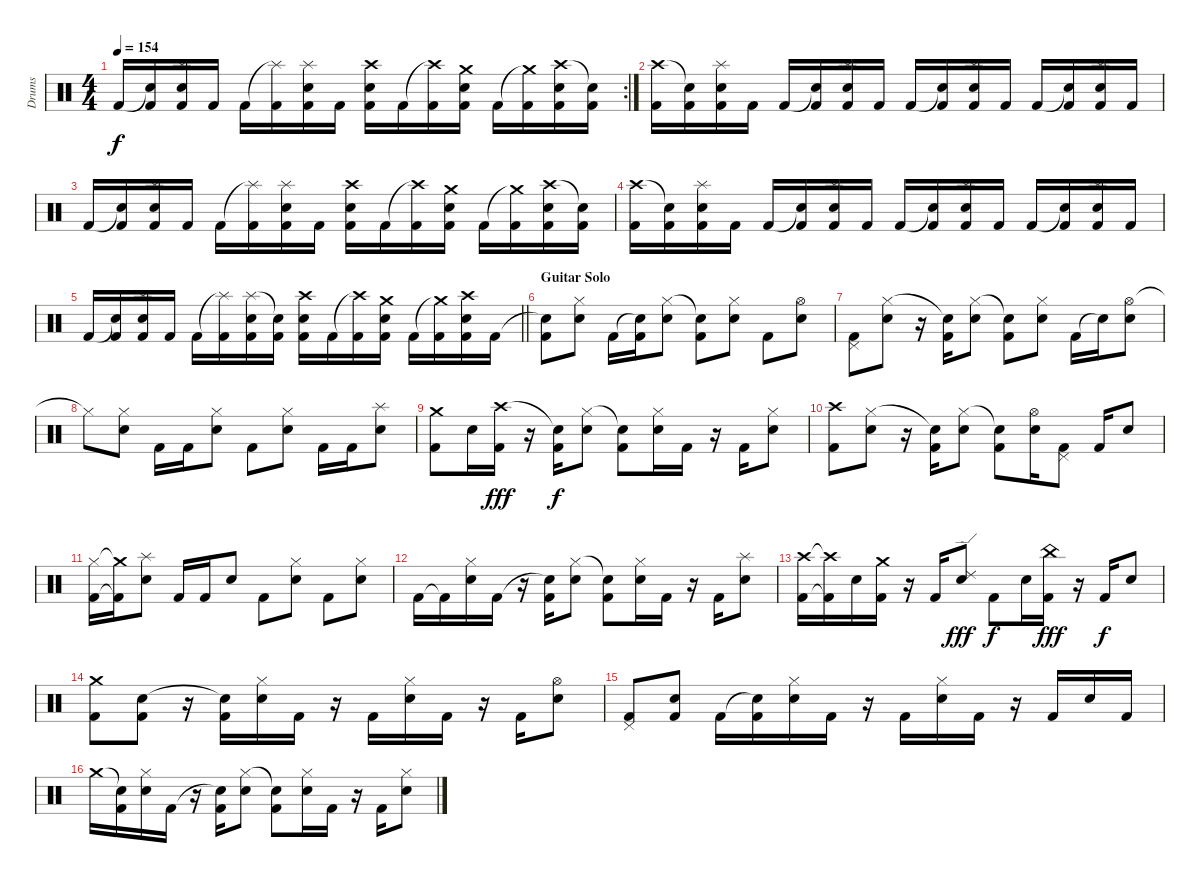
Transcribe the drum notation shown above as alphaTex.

\track ("Drums" "Drums") {instrument percussion}
\staff {score}
\articulation defaults
\rc 2
\ts (4 4)
\tempo 154
\clef neutral
\ks c "Kick (hit) 2".16{dy f}
("Snare (hit)"{t} "Kick (hit) 2").16 ("Splash (hit)" "Electric Snare (hit)" "Kick (hit) 2").16 "Kick (hit) 2".16 "Kick (hit) 2".16 ("Splash (hit)"{t} "Kick (hit) 2").16 ("Splash (hit)" "Electric Snare (hit)" "Kick (hit) 2").16 "Kick (hit) 2".16 ("Crash high (hit)" "Electric Snare (hit)" "Kick (hit) 2").16 "Kick (hit) 2".16 ("Crash high (hit)"{t} "Kick (hit) 2").16 ("Crash medium (hit)" "Electric Snare (hit)" "Kick (hit) 2").16 "Kick (hit) 2".16 ("Crash medium (hit)"{t} "Kick (hit) 2").16 ("Crash high (hit)" "Electric Snare (hit)" "Kick (hit) 2").16 ("Snare (hit)"{t} "Kick (hit) 2").16 |
("Crash high (hit)" "Kick (hit) 2").16 ("Snare (hit)"{t} "Kick (hit) 2").16 ("Splash (hit)" "Electric Snare (hit)" "Kick (hit) 2").16 "Kick (hit) 2".16 "Kick (hit) 2".16 ("Snare (hit)"{t} "Kick (hit) 2").16 ("Splash (hit)" "Electric Snare (hit)" "Kick (hit) 2").16 "Kick (hit) 2".16 "Kick (hit) 2".16 ("Snare (hit)"{t} "Kick (hit) 2").16 ("Splash (hit)" "Electric Snare (hit)" "Kick (hit) 2").16 "Kick (hit) 2".16 "Kick (hit) 2".16 ("Snare (hit)"{t} "Kick (hit) 2").16 ("Splash (hit)" "Electric Snare (hit)" "Kick (hit) 2").16 "Kick (hit) 2".16 |
"Kick (hit) 2".16 ("Snare (hit)"{t} "Kick (hit) 2").16 ("Splash (hit)" "Electric Snare (hit)" "Kick (hit) 2").16 "Kick (hit) 2".16 "Kick (hit) 2".16 ("Splash (hit)"{t} "Kick (hit) 2").16 ("Splash (hit)" "Electric Snare (hit)" "Kick (hit) 2").16 "Kick (hit) 2".16 ("Crash high (hit)" "Electric Snare (hit)" "Kick (hit) 2").16 "Kick (hit) 2".16 ("Crash high (hit)"{t} "Kick (hit) 2").16 ("Crash medium (hit)" "Electric Snare (hit)" "Kick (hit) 2").16 "Kick (hit) 2".16 ("Crash medium (hit)"{t} "Kick (hit) 2").16 ("Crash high (hit)" "Electric Snare (hit)" "Kick (hit) 2").16 ("Snare (hit)"{t} "Kick (hit) 2").16 |
("Crash high (hit)" "Kick (hit) 2").16 ("Snare (hit)"{t} "Kick (hit) 2").16 ("Splash (hit)" "Electric Snare (hit)" "Kick (hit) 2").16 "Kick (hit) 2".16 "Kick (hit) 2".16 ("Snare (hit)"{t} "Kick (hit) 2").16 ("Splash (hit)" "Electric Snare (hit)" "Kick (hit) 2").16 "Kick (hit) 2".16 "Kick (hit) 2".16 ("Snare (hit)"{t} "Kick (hit) 2").16 ("Splash (hit)" "Electric Snare (hit)" "Kick (hit) 2").16 "Kick (hit) 2".16 "Kick (hit) 2".16 ("Snare (hit)"{t} "Kick (hit) 2").16 ("Splash (hit)" "Electric Snare (hit)" "Kick (hit) 2").16 "Kick (hit) 2".16 |
\barLineRight lightlight "Kick (hit) 2".16
("Snare (hit)"{t} "Kick (hit) 2").16 ("Splash (hit)" "Electric Snare (hit)" "Kick (hit) 2").16 "Kick (hit) 2".16 "Kick (hit) 2".16 ("Splash (hit)"{t} "Kick (hit) 2").16 ("Splash (hit)" "Electric Snare (hit)" "Kick (hit) 2").16 ("Snare (hit)"{t} "Kick (hit) 2").16 ("Crash high (hit)" "Electric Snare (hit)" "Kick (hit) 2").16 "Kick (hit) 2".16 ("Crash high (hit)"{t} "Kick (hit) 2").16 ("Crash medium (hit)" "Electric Snare (hit)" "Kick (hit) 2").16 "Kick (hit) 2".16 ("Crash medium (hit)"{t} "Kick (hit) 2").16 ("Crash high (hit)" "Electric Snare (hit)" "Kick (hit) 2").16 "Kick (hit) 2".16 |
\section ("" "Guitar Solo")
("Snare (hit)"{t} "Kick (hit) 2").8 ("Hi-Hat (closed)" "Electric Snare (hit)").8 "Kick (hit) 2".16 ("Snare (hit)"{t} "Kick (hit) 2").16 ("Hi-Hat (closed)" "Electric Snare (hit)").8 ("Snare (hit)"{t} "Kick (hit) 2").8 ("Hi-Hat (closed)" "Electric Snare (hit)").8 "Kick (hit) 2".8 ("Hi-Hat (open)" "Electric Snare (hit)").8 |
("Pedal Hi-Hat (hit)" "Kick (hit) 2").8 ("Hi-Hat (closed)" "Electric Snare (hit)").8 r.16 ("Snare (hit)"{t} "Kick (hit) 2").16 ("Hi-Hat (closed)" "Electric Snare (hit)").8 ("Snare (hit)"{t} "Kick (hit) 2").8 ("Hi-Hat (closed)" "Electric Snare (hit)").8 "Kick (hit) 2".16 "Snare (hit)"{t}.16 ("Hi-Hat (open)" "Electric Snare (hit)").8 |
"Hi-Hat (closed)"{t}.8 ("Hi-Hat (closed)" "Electric Snare (hit)").8 "Kick (hit) 2".16 "Kick (hit) 2".16 ("Hi-Hat (closed)" "Electric Snare (hit)").8 "Kick (hit) 2".8 ("Hi-Hat (closed)" "Electric Snare (hit)").8 "Kick (hit) 2".16 "Kick (hit) 2".16 ("Splash (hit)" "Electric Snare (hit)").8 |
("Crash medium (hit)" "Kick (hit) 2").8 "Electric Snare (hit)".16 ("Crash high (hit)" "Kick (hit) 2").16{dy fff} r.16 ("Snare (hit)"{t} "Kick (hit) 2").16{dy f} ("Hi-Hat (closed)" "Electric Snare (hit)").8 ("Snare (hit)"{t} "Kick (hit) 2").8 ("Hi-Hat (closed)" "Electric Snare (hit)").16 "Kick (hit) 2".16 r.16 "Kick (hit) 2".16 ("Hi-Hat (closed)" "Electric Snare (hit)").8 |
("Crash high (hit)" "Kick (hit) 2").8 ("Hi-Hat (closed)" "Electric Snare (hit)").8 r.16 ("Snare (hit)"{t} "Kick (hit) 2").16 ("Hi-Hat (closed)" "Electric Snare (hit)").8 ("Snare (hit)"{t} "Kick (hit) 2").8 ("Hi-Hat (open)" "Electric Snare (hit)").16 ("Pedal Hi-Hat (hit)" "Kick (hit) 2").8 "Kick (hit) 2".16 "Electric Snare (hit)".8 |
("Hi-Hat (closed)" "Kick (hit) 2").16 ("Crash medium (hit)"{t} "Kick (hit) 2"{t}).16 ("Splash (hit)" "Electric Snare (hit)").8 "Kick (hit) 2".16 "Kick (hit) 2".16 "Electric Snare (hit)".8 "Kick (hit) 2".8 ("Hi-Hat (closed)" "Electric Snare (hit)").8 "Kick (hit) 2".8 ("Hi-Hat (closed)" "Electric Snare (hit)").8 |
"Kick (hit) 2".16 "Kick (hit) 2"{t}.16 ("Hi-Hat (closed)" "Electric Snare (hit)").16 "Kick (hit) 2".16 r.16 ("Snare (hit)"{t} "Kick (hit) 2").16 ("Hi-Hat (closed)" "Electric Snare (hit)").8 ("Snare (hit)"{t} "Kick (hit) 2").8 ("Hi-Hat (closed)" "Electric Snare (hit)").16 "Kick (hit) 2".16 r.16 "Kick (hit) 2".16 ("Splash (hit)" "Electric Snare (hit)").8 |
("Crash high (hit)" "Kick (hit) 2").16 ("Crash high (hit)"{t} "Kick (hit) 2"{t}).16 "Electric Snare (hit)".16 ("Crash medium (hit)" "Kick (hit) 2").16 r.16 "Kick (hit) 2".16 ("Ride (edge) 2" "Electric Snare (hit)").8{dy fff} "Kick (hit) 2".8{dy f} "Electric Snare (hit)".16 ("China (hit)" "Kick (hit) 2").16{dy fff} r.16 "Kick (hit) 2".16{dy f} "Electric Snare (hit)".8 |
("Crash medium (hit)" "Kick (hit) 2").8 ("Electric Snare (hit)" "Kick (hit) 2").8 r.16 ("Snare (hit)"{t} "Kick (hit) 2").16 ("Hi-Hat (closed)" "Electric Snare (hit)").16 "Kick (hit) 2".16 r.16 "Kick (hit) 2".16 ("Hi-Hat (closed)" "Electric Snare (hit)").16 "Kick (hit) 2".16 r.16 "Kick (hit) 2".16 ("Hi-Hat (open)" "Electric Snare (hit)").8 |
("Pedal Hi-Hat (hit)" "Kick (hit) 2").8 ("Electric Snare (hit)" "Kick (hit) 2").8 "Kick (hit) 2".16 ("Snare (hit)"{t} "Kick (hit) 2").16 ("Hi-Hat (closed)" "Electric Snare (hit)").16 "Kick (hit) 2".16 r.16 "Kick (hit) 2".16 ("Hi-Hat (closed)" "Electric Snare (hit)").16 "Kick (hit) 2".16 r.16 "Kick (hit) 2".16 "Electric Snare (hit)".16 "Kick (hit) 2".16 |
"Crash medium (hit)".16 ("Snare (hit)"{t} "Kick (hit) 2").16 ("Hi-Hat (closed)" "Electric Snare (hit)").16 "Kick (hit) 2".16 r.16 ("Snare (hit)"{t} "Kick (hit) 2").16 ("Hi-Hat (closed)" "Electric Snare (hit)").8 ("Snare (hit)"{t} "Kick (hit) 2").8 ("Hi-Hat (closed)" "Electric Snare (hit)").16 "Kick (hit) 2".16 r.16 "Kick (hit) 2".16 ("Hi-Hat (closed)" "Electric Snare (hit)").8
